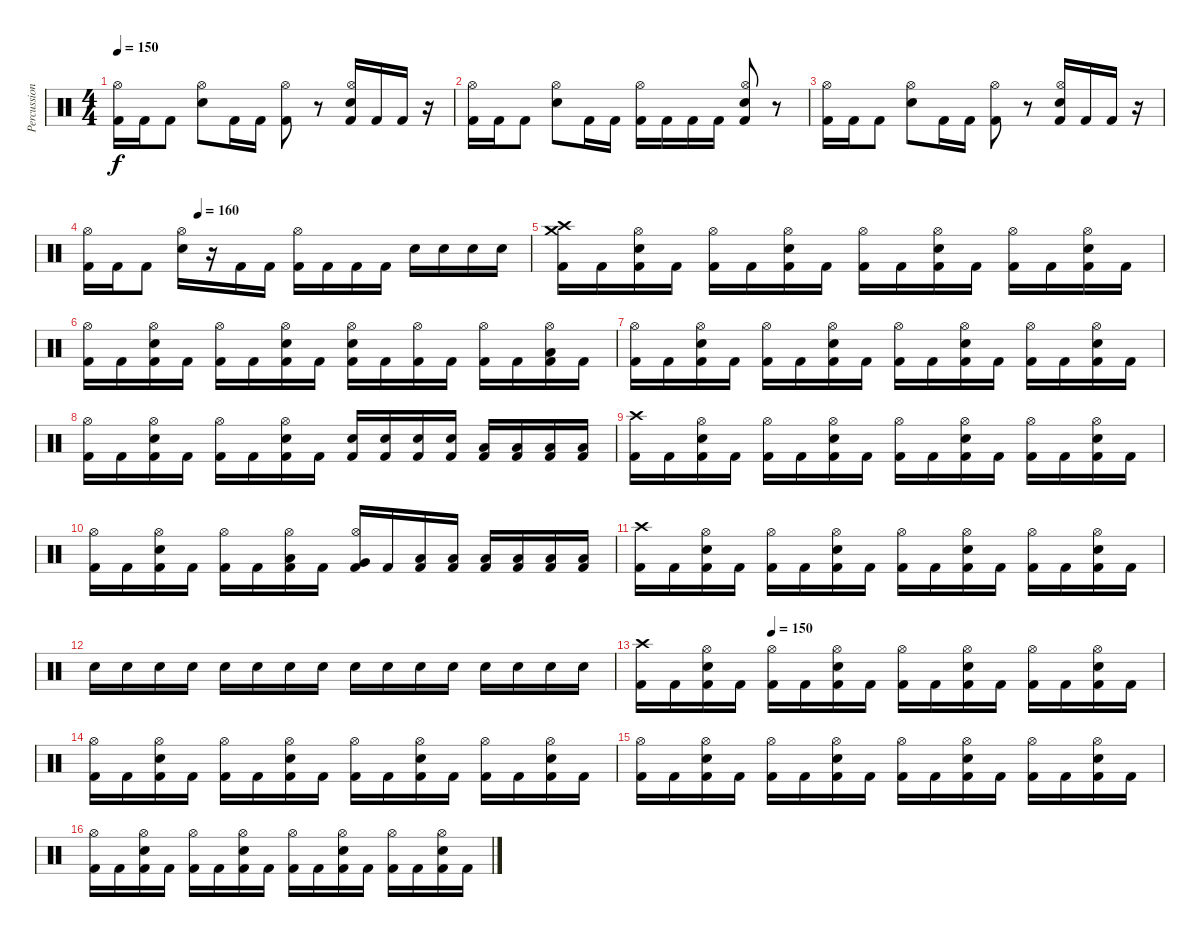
\track ("Percussion" "Percussion") {instrument percussion}
\staff {score}
\articulation defaults
\ts (4 4)
\tempo 150
\clef neutral
\ks c
("Kick (hit) 2" "Hi-Hat (open)").16{dy f} "Kick (hit) 2".16 "Kick (hit) 2".8 ("Electric Snare (hit)" "Hi-Hat (open)").8 "Kick (hit) 2".16 "Kick (hit) 2".16 ("Kick (hit) 2" "Hi-Hat (open)").8 r.8 ("Kick (hit) 2" "Electric Snare (hit)" "Hi-Hat (open)").16 "Kick (hit) 2".16 "Kick (hit) 2".16 r.16 |
("Kick (hit) 2" "Hi-Hat (open)").16 "Kick (hit) 2".16 "Kick (hit) 2".8 ("Electric Snare (hit)" "Hi-Hat (open)").8 "Kick (hit) 2".16 "Kick (hit) 2".16 ("Kick (hit) 2" "Hi-Hat (open)").16 "Kick (hit) 2".16 "Kick (hit) 2".16 "Kick (hit) 2".16 ("Kick (hit) 2" "Electric Snare (hit)" "Hi-Hat (open)").8 r.8 |
("Kick (hit) 2" "Hi-Hat (open)").16 "Kick (hit) 2".16 "Kick (hit) 2".8 ("Electric Snare (hit)" "Hi-Hat (open)").8 "Kick (hit) 2".16 "Kick (hit) 2".16 ("Kick (hit) 2" "Hi-Hat (open)").8 r.8 ("Kick (hit) 2" "Electric Snare (hit)" "Hi-Hat (open)").16 "Kick (hit) 2".16 "Kick (hit) 2".16 r.16 |
\tempo (160 0.25)
("Kick (hit) 2" "Hi-Hat (open)").16 "Kick (hit) 2".16 "Kick (hit) 2".8 ("Electric Snare (hit)" "Hi-Hat (open)").16 r.16 "Kick (hit) 2".16 "Kick (hit) 2".16 ("Kick (hit) 2" "Hi-Hat (open)").16 "Kick (hit) 2".16 "Kick (hit) 2".16 "Kick (hit) 2".16 "Electric Snare (hit)".16 "Electric Snare (hit)".16 "Electric Snare (hit)".16 "Electric Snare (hit)".16 |
("Kick (hit) 2" "Crash medium (hit)" "Crash high (hit)").16 "Kick (hit) 2".16 ("Kick (hit) 2" "Electric Snare (hit)" "Hi-Hat (open)").16 "Kick (hit) 2".16 ("Kick (hit) 2" "Hi-Hat (open)").16 "Kick (hit) 2".16 ("Kick (hit) 2" "Electric Snare (hit)" "Hi-Hat (open)").16 "Kick (hit) 2".16 ("Kick (hit) 2" "Hi-Hat (open)").16 "Kick (hit) 2".16 ("Kick (hit) 2" "Electric Snare (hit)" "Hi-Hat (open)").16 "Kick (hit) 2".16 ("Kick (hit) 2" "Hi-Hat (open)").16 "Kick (hit) 2".16 ("Kick (hit) 2" "Electric Snare (hit)" "Hi-Hat (open)").16 "Kick (hit) 2".16 |
("Kick (hit) 2" "Hi-Hat (open)").16 "Kick (hit) 2".16 ("Kick (hit) 2" "Electric Snare (hit)" "Hi-Hat (open)").16 "Kick (hit) 2".16 ("Kick (hit) 2" "Hi-Hat (open)").16 "Kick (hit) 2".16 ("Kick (hit) 2" "Electric Snare (hit)" "Hi-Hat (open)").16 "Kick (hit) 2".16 ("Kick (hit) 2" "Electric Snare (hit)" "Hi-Hat (open)").16 "Kick (hit) 2".16 ("Kick (hit) 2" "Hi-Hat (open)").16 "Kick (hit) 2".16 ("Kick (hit) 2" "Hi-Hat (open)").16 "Kick (hit) 2".16 ("Kick (hit) 2" "Low Tom (hit)" "Hi-Hat (open)").16 "Kick (hit) 2".16 |
("Kick (hit) 2" "Hi-Hat (open)").16 "Kick (hit) 2".16 ("Kick (hit) 2" "Electric Snare (hit)" "Hi-Hat (open)").16 "Kick (hit) 2".16 ("Kick (hit) 2" "Hi-Hat (open)").16 "Kick (hit) 2".16 ("Kick (hit) 2" "Electric Snare (hit)" "Hi-Hat (open)").16 "Kick (hit) 2".16 ("Kick (hit) 2" "Hi-Hat (open)").16 "Kick (hit) 2".16 ("Kick (hit) 2" "Electric Snare (hit)" "Hi-Hat (open)").16 "Kick (hit) 2".16 ("Kick (hit) 2" "Hi-Hat (open)").16 "Kick (hit) 2".16 ("Kick (hit) 2" "Electric Snare (hit)" "Hi-Hat (open)").16 "Kick (hit) 2".16 |
("Kick (hit) 2" "Hi-Hat (open)").16 "Kick (hit) 2".16 ("Kick (hit) 2" "Electric Snare (hit)" "Hi-Hat (open)").16 "Kick (hit) 2".16 ("Kick (hit) 2" "Hi-Hat (open)").16 "Kick (hit) 2".16 ("Kick (hit) 2" "Electric Snare (hit)" "Hi-Hat (open)").16 "Kick (hit) 2".16 ("Kick (hit) 2" "Electric Snare (hit)").16 ("Kick (hit) 2" "Electric Snare (hit)").16 ("Kick (hit) 2" "Electric Snare (hit)").16 ("Kick (hit) 2" "Electric Snare (hit)").16 ("Kick (hit) 2" "Low Tom (hit)").16 ("Kick (hit) 2" "Low Tom (hit)").16 ("Kick (hit) 2" "Low Tom (hit)").16 ("Kick (hit) 2" "Low Tom (hit)").16 |
("Kick (hit) 2" "Crash high (hit)").16 "Kick (hit) 2".16 ("Kick (hit) 2" "Electric Snare (hit)" "Hi-Hat (open)").16 "Kick (hit) 2".16 ("Kick (hit) 2" "Hi-Hat (open)").16 "Kick (hit) 2".16 ("Kick (hit) 2" "Electric Snare (hit)" "Hi-Hat (open)").16 "Kick (hit) 2".16 ("Kick (hit) 2" "Hi-Hat (open)").16 "Kick (hit) 2".16 ("Kick (hit) 2" "Electric Snare (hit)" "Hi-Hat (open)").16 "Kick (hit) 2".16 ("Kick (hit) 2" "Hi-Hat (open)").16 "Kick (hit) 2".16 ("Kick (hit) 2" "Electric Snare (hit)" "Hi-Hat (open)").16 "Kick (hit) 2".16 |
("Kick (hit) 2" "Hi-Hat (open)").16 "Kick (hit) 2".16 ("Kick (hit) 2" "Electric Snare (hit)" "Hi-Hat (open)").16 "Kick (hit) 2".16 ("Kick (hit) 2" "Hi-Hat (open)").16 "Kick (hit) 2".16 ("Kick (hit) 2" "Low Tom (hit)" "Hi-Hat (open)").16 "Kick (hit) 2".16 ("Kick (hit) 2" "Very Low Tom (hit)" "Hi-Hat (open)").16 "Kick (hit) 2".16 ("Kick (hit) 2" "Low Floor Tom (hit)").16 ("Kick (hit) 2" "Low Floor Tom (hit)").16 ("Kick (hit) 2" "Low Floor Tom (hit)").16 ("Kick (hit) 2" "Low Floor Tom (hit)").16 ("Kick (hit) 2" "Low Floor Tom (hit)").16 ("Kick (hit) 2" "Low Floor Tom (hit)").16 |
("Kick (hit) 2" "Crash high (hit)").16 "Kick (hit) 2".16 ("Kick (hit) 2" "Electric Snare (hit)" "Hi-Hat (open)").16 "Kick (hit) 2".16 ("Kick (hit) 2" "Hi-Hat (open)").16 "Kick (hit) 2".16 ("Kick (hit) 2" "Electric Snare (hit)" "Hi-Hat (open)").16 "Kick (hit) 2".16 ("Kick (hit) 2" "Hi-Hat (open)").16 "Kick (hit) 2".16 ("Kick (hit) 2" "Electric Snare (hit)" "Hi-Hat (open)").16 "Kick (hit) 2".16 ("Kick (hit) 2" "Hi-Hat (open)").16 "Kick (hit) 2".16 ("Kick (hit) 2" "Electric Snare (hit)" "Hi-Hat (open)").16 "Kick (hit) 2".16 |
"Electric Snare (hit)".16 "Electric Snare (hit)".16 "Electric Snare (hit)".16 "Electric Snare (hit)".16 "Electric Snare (hit)".16 "Electric Snare (hit)".16 "Electric Snare (hit)".16 "Electric Snare (hit)".16 "Electric Snare (hit)".16 "Electric Snare (hit)".16 "Electric Snare (hit)".16 "Electric Snare (hit)".16 "Electric Snare (hit)".16 "Electric Snare (hit)".16 "Electric Snare (hit)".16 "Electric Snare (hit)".16 |
\tempo (150 0.25)
("Kick (hit) 2" "Crash high (hit)").16 "Kick (hit) 2".16 ("Kick (hit) 2" "Electric Snare (hit)" "Hi-Hat (open)").16 "Kick (hit) 2".16 ("Kick (hit) 2" "Hi-Hat (open)").16 "Kick (hit) 2".16 ("Kick (hit) 2" "Electric Snare (hit)" "Hi-Hat (open)").16 "Kick (hit) 2".16 ("Kick (hit) 2" "Hi-Hat (open)").16 "Kick (hit) 2".16 ("Kick (hit) 2" "Electric Snare (hit)" "Hi-Hat (open)").16 "Kick (hit) 2".16 ("Kick (hit) 2" "Hi-Hat (open)").16 "Kick (hit) 2".16 ("Kick (hit) 2" "Electric Snare (hit)" "Hi-Hat (open)").16 "Kick (hit) 2".16 |
("Kick (hit) 2" "Hi-Hat (open)").16 "Kick (hit) 2".16 ("Kick (hit) 2" "Electric Snare (hit)" "Hi-Hat (open)").16 "Kick (hit) 2".16 ("Kick (hit) 2" "Hi-Hat (open)").16 "Kick (hit) 2".16 ("Kick (hit) 2" "Electric Snare (hit)" "Hi-Hat (open)").16 "Kick (hit) 2".16 ("Kick (hit) 2" "Hi-Hat (open)").16 "Kick (hit) 2".16 ("Kick (hit) 2" "Electric Snare (hit)" "Hi-Hat (open)").16 "Kick (hit) 2".16 ("Kick (hit) 2" "Hi-Hat (open)").16 "Kick (hit) 2".16 ("Kick (hit) 2" "Electric Snare (hit)" "Hi-Hat (open)").16 "Kick (hit) 2".16 |
("Kick (hit) 2" "Hi-Hat (open)").16 "Kick (hit) 2".16 ("Kick (hit) 2" "Electric Snare (hit)" "Hi-Hat (open)").16 "Kick (hit) 2".16 ("Kick (hit) 2" "Hi-Hat (open)").16 "Kick (hit) 2".16 ("Kick (hit) 2" "Electric Snare (hit)" "Hi-Hat (open)").16 "Kick (hit) 2".16 ("Kick (hit) 2" "Hi-Hat (open)").16 "Kick (hit) 2".16 ("Kick (hit) 2" "Electric Snare (hit)" "Hi-Hat (open)").16 "Kick (hit) 2".16 ("Kick (hit) 2" "Hi-Hat (open)").16 "Kick (hit) 2".16 ("Kick (hit) 2" "Electric Snare (hit)" "Hi-Hat (open)").16 "Kick (hit) 2".16 |
("Kick (hit) 2" "Hi-Hat (open)").16 "Kick (hit) 2".16 ("Kick (hit) 2" "Electric Snare (hit)" "Hi-Hat (open)").16 "Kick (hit) 2".16 ("Kick (hit) 2" "Hi-Hat (open)").16 "Kick (hit) 2".16 ("Kick (hit) 2" "Electric Snare (hit)" "Hi-Hat (open)").16 "Kick (hit) 2".16 ("Kick (hit) 2" "Hi-Hat (open)").16 "Kick (hit) 2".16 ("Kick (hit) 2" "Electric Snare (hit)" "Hi-Hat (open)").16 "Kick (hit) 2".16 ("Kick (hit) 2" "Hi-Hat (open)").16 "Kick (hit) 2".16 ("Kick (hit) 2" "Electric Snare (hit)" "Hi-Hat (open)").16 "Kick (hit) 2".16
